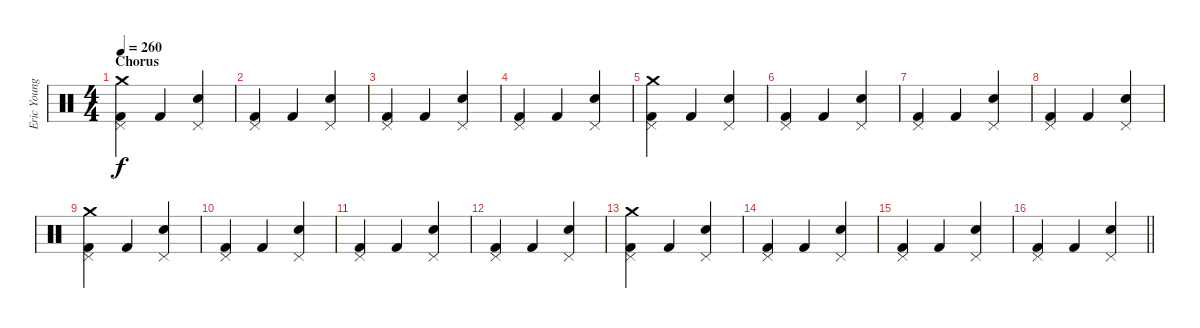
\track ("Eric Young (Drums)" "Eric Young") {instrument percussion}
\staff {score}
\articulation defaults
\ts (4 4)
\section ("" "Chorus")
\tempo 260
\clef neutral
\ks c
("Pedal Hi-Hat (hit)" "Kick (hit) 2" "Crash medium (hit)").4{dy f} "Kick (hit) 2".4 ("Pedal Hi-Hat (hit)" "Snare (hit) 2").4 |
("Pedal Hi-Hat (hit)" "Kick (hit) 2").4 "Kick (hit) 2".4 ("Pedal Hi-Hat (hit)" "Snare (hit) 2").4 |
("Pedal Hi-Hat (hit)" "Kick (hit) 2").4 "Kick (hit) 2".4 ("Pedal Hi-Hat (hit)" "Snare (hit) 2").4 |
("Pedal Hi-Hat (hit)" "Kick (hit) 2").4 "Kick (hit) 2".4 ("Pedal Hi-Hat (hit)" "Snare (hit) 2").4 |
("Pedal Hi-Hat (hit)" "Kick (hit) 2" "Crash medium (hit)").4 "Kick (hit) 2".4 ("Pedal Hi-Hat (hit)" "Snare (hit) 2").4 |
("Pedal Hi-Hat (hit)" "Kick (hit) 2").4 "Kick (hit) 2".4 ("Pedal Hi-Hat (hit)" "Snare (hit) 2").4 |
("Pedal Hi-Hat (hit)" "Kick (hit) 2").4 "Kick (hit) 2".4 ("Pedal Hi-Hat (hit)" "Snare (hit) 2").4 |
("Pedal Hi-Hat (hit)" "Kick (hit) 2").4 "Kick (hit) 2".4 ("Pedal Hi-Hat (hit)" "Snare (hit) 2").4 |
("Pedal Hi-Hat (hit)" "Kick (hit) 2" "Crash medium (hit)").4 "Kick (hit) 2".4 ("Pedal Hi-Hat (hit)" "Snare (hit) 2").4 |
("Pedal Hi-Hat (hit)" "Kick (hit) 2").4 "Kick (hit) 2".4 ("Pedal Hi-Hat (hit)" "Snare (hit) 2").4 |
("Pedal Hi-Hat (hit)" "Kick (hit) 2").4 "Kick (hit) 2".4 ("Pedal Hi-Hat (hit)" "Snare (hit) 2").4 |
("Pedal Hi-Hat (hit)" "Kick (hit) 2").4 "Kick (hit) 2".4 ("Pedal Hi-Hat (hit)" "Snare (hit) 2").4 |
("Pedal Hi-Hat (hit)" "Kick (hit) 2" "Crash medium (hit)").4 "Kick (hit) 2".4 ("Pedal Hi-Hat (hit)" "Snare (hit) 2").4 |
("Pedal Hi-Hat (hit)" "Kick (hit) 2").4 "Kick (hit) 2".4 ("Pedal Hi-Hat (hit)" "Snare (hit) 2").4 |
("Pedal Hi-Hat (hit)" "Kick (hit) 2").4 "Kick (hit) 2".4 ("Pedal Hi-Hat (hit)" "Snare (hit) 2").4 |
\barLineRight lightlight
("Pedal Hi-Hat (hit)" "Kick (hit) 2").4 "Kick (hit) 2".4 ("Pedal Hi-Hat (hit)" "Snare (hit) 2").4
